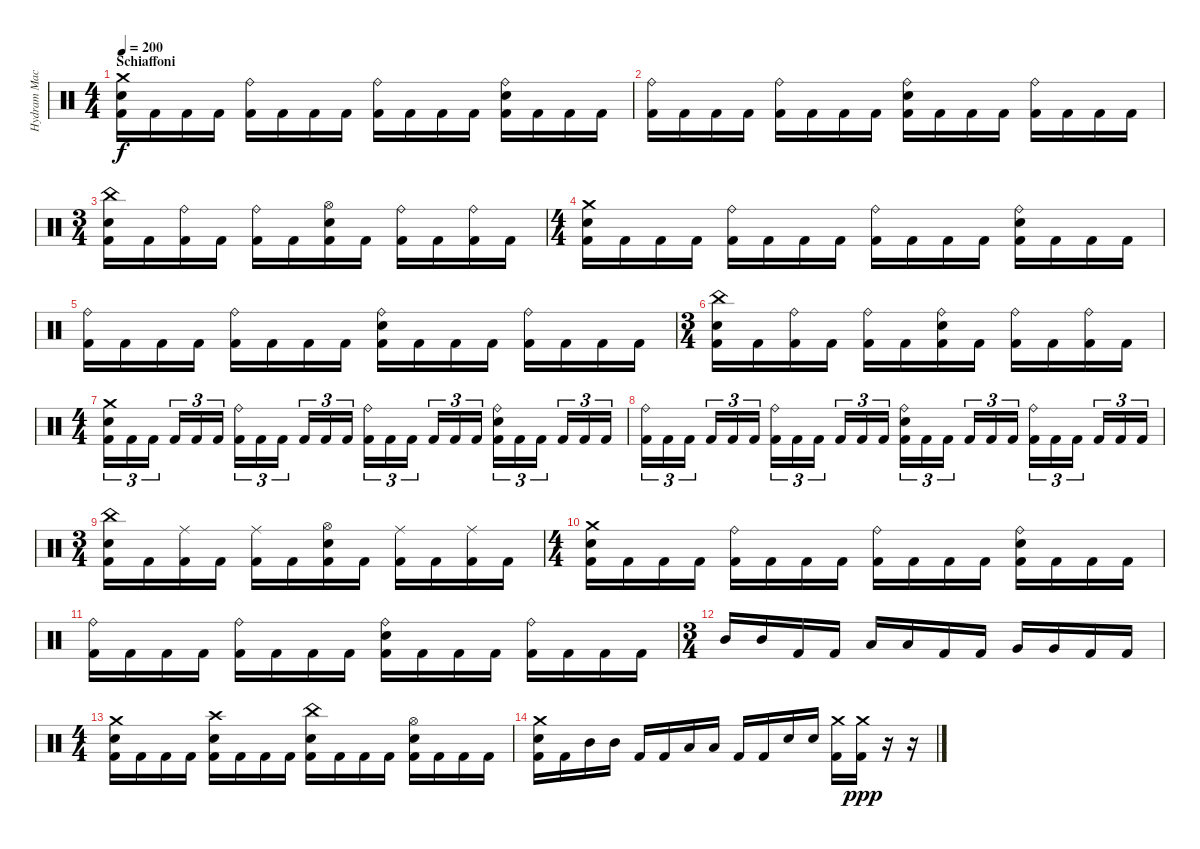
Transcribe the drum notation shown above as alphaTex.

\track ("Hydram Machine" "Hydram Mac") {instrument percussion}
\staff {score}
\articulation defaults
\ts (4 4)
\section ("" "Schiaffoni")
\tempo 200
\clef neutral
\ks c
("Crash medium (hit)" "Electric Snare (hit)" "Kick (hit) 2").16{dy f} "Kick (hit) 2".16 "Kick (hit) 2".16 "Kick (hit) 2".16 ("Ride (bell)" "Kick (hit) 2").16 "Kick (hit) 2".16 "Kick (hit) 2".16 "Kick (hit) 2".16 ("Ride (bell)" "Kick (hit) 2").16 "Kick (hit) 2".16 "Kick (hit) 2".16 "Kick (hit) 2".16 ("Ride (bell)" "Electric Snare (hit)" "Kick (hit) 2").16 "Kick (hit) 2".16 "Kick (hit) 2".16 "Kick (hit) 2".16 |
("Ride (bell)" "Kick (hit) 2").16 "Kick (hit) 2".16 "Kick (hit) 2".16 "Kick (hit) 2".16 ("Ride (bell)" "Kick (hit) 2").16 "Kick (hit) 2".16 "Kick (hit) 2".16 "Kick (hit) 2".16 ("Ride (bell)" "Electric Snare (hit)" "Kick (hit) 2").16 "Kick (hit) 2".16 "Kick (hit) 2".16 "Kick (hit) 2".16 ("Ride (bell)" "Kick (hit) 2").16 "Kick (hit) 2".16 "Kick (hit) 2".16 "Kick (hit) 2".16 |
\ts (3 4)
("China (hit)" "Electric Snare (hit)" "Kick (hit) 2").16 "Kick (hit) 2".16 ("Ride (bell)" "Kick (hit) 2").16 "Kick (hit) 2".16 ("Ride (bell)" "Kick (hit) 2").16 "Kick (hit) 2".16 ("Hi-Hat (open)" "Electric Snare (hit)" "Kick (hit) 2").16 "Kick (hit) 2".16 ("Ride (bell)" "Kick (hit) 2").16 "Kick (hit) 2".16 ("Ride (bell)" "Kick (hit) 2").16 "Kick (hit) 2".16 |
\ts (4 4)
("Crash medium (hit)" "Electric Snare (hit)" "Kick (hit) 2").16 "Kick (hit) 2".16 "Kick (hit) 2".16 "Kick (hit) 2".16 ("Ride (bell)" "Kick (hit) 2").16 "Kick (hit) 2".16 "Kick (hit) 2".16 "Kick (hit) 2".16 ("Ride (bell)" "Kick (hit) 2").16 "Kick (hit) 2".16 "Kick (hit) 2".16 "Kick (hit) 2".16 ("Ride (bell)" "Electric Snare (hit)" "Kick (hit) 2").16 "Kick (hit) 2".16 "Kick (hit) 2".16 "Kick (hit) 2".16 |
("Ride (bell)" "Kick (hit) 2").16 "Kick (hit) 2".16 "Kick (hit) 2".16 "Kick (hit) 2".16 ("Ride (bell)" "Kick (hit) 2").16 "Kick (hit) 2".16 "Kick (hit) 2".16 "Kick (hit) 2".16 ("Ride (bell)" "Electric Snare (hit)" "Kick (hit) 2").16 "Kick (hit) 2".16 "Kick (hit) 2".16 "Kick (hit) 2".16 ("Ride (bell)" "Kick (hit) 2").16 "Kick (hit) 2".16 "Kick (hit) 2".16 "Kick (hit) 2".16 |
\ts (3 4)
("China (hit)" "Electric Snare (hit)" "Kick (hit) 2").16 "Kick (hit) 2".16 ("Ride (bell)" "Kick (hit) 2").16 "Kick (hit) 2".16 ("Ride (bell)" "Kick (hit) 2").16 "Kick (hit) 2".16 ("Ride (bell)" "Electric Snare (hit)" "Kick (hit) 2").16 "Kick (hit) 2".16 ("Ride (bell)" "Kick (hit) 2").16 "Kick (hit) 2".16 ("Ride (bell)" "Kick (hit) 2").16 "Kick (hit) 2".16 |
\ts (4 4)
("Crash medium (hit)" "Electric Snare (hit)" "Kick (hit) 2").16{tu (3 2)} "Kick (hit) 2".16{tu (3 2)} "Kick (hit) 2".16{tu (3 2) beam splitsecondary} "Kick (hit) 2".16{tu (3 2)} "Kick (hit) 2".16{tu (3 2)} "Kick (hit) 2".16{tu (3 2)} ("Ride (bell)" "Kick (hit) 2").16{tu (3 2)} "Kick (hit) 2".16{tu (3 2)} "Kick (hit) 2".16{tu (3 2) beam splitsecondary} "Kick (hit) 2".16{tu (3 2)} "Kick (hit) 2".16{tu (3 2)} "Kick (hit) 2".16{tu (3 2)} ("Ride (bell)" "Kick (hit) 2").16{tu (3 2)} "Kick (hit) 2".16{tu (3 2)} "Kick (hit) 2".16{tu (3 2) beam splitsecondary} "Kick (hit) 2".16{tu (3 2)} "Kick (hit) 2".16{tu (3 2)} "Kick (hit) 2".16{tu (3 2)} ("Ride (bell)" "Electric Snare (hit)" "Kick (hit) 2").16{tu (3 2)} "Kick (hit) 2".16{tu (3 2)} "Kick (hit) 2".16{tu (3 2) beam splitsecondary} "Kick (hit) 2".16{tu (3 2)} "Kick (hit) 2".16{tu (3 2)} "Kick (hit) 2".16{tu (3 2)} |
("Ride (bell)" "Kick (hit) 2").16{tu (3 2)} "Kick (hit) 2".16{tu (3 2)} "Kick (hit) 2".16{tu (3 2) beam splitsecondary} "Kick (hit) 2".16{tu (3 2)} "Kick (hit) 2".16{tu (3 2)} "Kick (hit) 2".16{tu (3 2)} ("Ride (bell)" "Kick (hit) 2").16{tu (3 2)} "Kick (hit) 2".16{tu (3 2)} "Kick (hit) 2".16{tu (3 2) beam splitsecondary} "Kick (hit) 2".16{tu (3 2)} "Kick (hit) 2".16{tu (3 2)} "Kick (hit) 2".16{tu (3 2)} ("Ride (bell)" "Electric Snare (hit)" "Kick (hit) 2").16{tu (3 2)} "Kick (hit) 2".16{tu (3 2)} "Kick (hit) 2".16{tu (3 2) beam splitsecondary} "Kick (hit) 2".16{tu (3 2)} "Kick (hit) 2".16{tu (3 2)} "Kick (hit) 2".16{tu (3 2)} ("Ride (bell)" "Kick (hit) 2").16{tu (3 2)} "Kick (hit) 2".16{tu (3 2)} "Kick (hit) 2".16{tu (3 2) beam splitsecondary} "Kick (hit) 2".16{tu (3 2)} "Kick (hit) 2".16{tu (3 2)} "Kick (hit) 2".16{tu (3 2)} |
\ts (3 4)
("China (hit)" "Electric Snare (hit)" "Kick (hit) 2").16 "Kick (hit) 2".16 ("Ride (middle)" "Kick (hit) 2").16 "Kick (hit) 2".16 ("Ride (middle)" "Kick (hit) 2").16 "Kick (hit) 2".16 ("Hi-Hat (open)" "Electric Snare (hit)" "Kick (hit) 2").16 "Kick (hit) 2".16 ("Ride (middle)" "Kick (hit) 2").16 "Kick (hit) 2".16 ("Ride (middle)" "Kick (hit) 2").16 "Kick (hit) 2".16 |
\ts (4 4)
("Crash medium (hit)" "Electric Snare (hit)" "Kick (hit) 2").16 "Kick (hit) 2".16 "Kick (hit) 2".16 "Kick (hit) 2".16 ("Ride (bell)" "Kick (hit) 2").16 "Kick (hit) 2".16 "Kick (hit) 2".16 "Kick (hit) 2".16 ("Ride (bell)" "Kick (hit) 2").16 "Kick (hit) 2".16 "Kick (hit) 2".16 "Kick (hit) 2".16 ("Ride (bell)" "Electric Snare (hit)" "Kick (hit) 2").16 "Kick (hit) 2".16 "Kick (hit) 2".16 "Kick (hit) 2".16 |
("Ride (bell)" "Kick (hit) 2").16 "Kick (hit) 2".16 "Kick (hit) 2".16 "Kick (hit) 2".16 ("Ride (bell)" "Kick (hit) 2").16 "Kick (hit) 2".16 "Kick (hit) 2".16 "Kick (hit) 2".16 ("Ride (bell)" "Electric Snare (hit)" "Kick (hit) 2").16 "Kick (hit) 2".16 "Kick (hit) 2".16 "Kick (hit) 2".16 ("Ride (bell)" "Kick (hit) 2").16 "Kick (hit) 2".16 "Kick (hit) 2".16 "Kick (hit) 2".16 |
\ts (3 4)
"Mid Tom (hit)".16 "Mid Tom (hit)".16 "Kick (hit) 2".16 "Kick (hit) 2".16 "Low Tom (hit)".16 "Low Tom (hit)".16 "Kick (hit) 2".16 "Kick (hit) 2".16 "Very Low Tom (hit)".16 "Very Low Tom (hit)".16 "Kick (hit) 2".16 "Kick (hit) 2".16 |
\ts (4 4)
("Crash medium (hit)" "Electric Snare (hit)" "Kick (hit) 2").16 "Kick (hit) 2".16 "Kick (hit) 2".16 "Kick (hit) 2".16 ("Crash high (hit)" "Electric Snare (hit)" "Kick (hit) 2").16 "Kick (hit) 2".16 "Kick (hit) 2".16 "Kick (hit) 2".16 ("China (hit)" "Electric Snare (hit)" "Kick (hit) 2").16 "Kick (hit) 2".16 "Kick (hit) 2".16 "Kick (hit) 2".16 ("Hi-Hat (open)" "Electric Snare (hit)" "Kick (hit) 2").16 "Kick (hit) 2".16 "Kick (hit) 2".16 "Kick (hit) 2".16 |
("Crash medium (hit)" "Electric Snare (hit)" "Kick (hit) 2").16 "Kick (hit) 2".16 "Mid Tom (hit)".16 "Mid Tom (hit)".16 "Kick (hit) 2".16 "Kick (hit) 2".16 "Low Tom (hit)".16 "Low Tom (hit)".16 "Kick (hit) 2".16 "Kick (hit) 2".16 "Electric Snare (hit)".16 "Electric Snare (hit)".16 ("Crash medium (hit)" "Kick (hit) 2").16 ("Crash medium (hit)" "Kick (hit) 2").16{dy ppp} r.16 r.16
